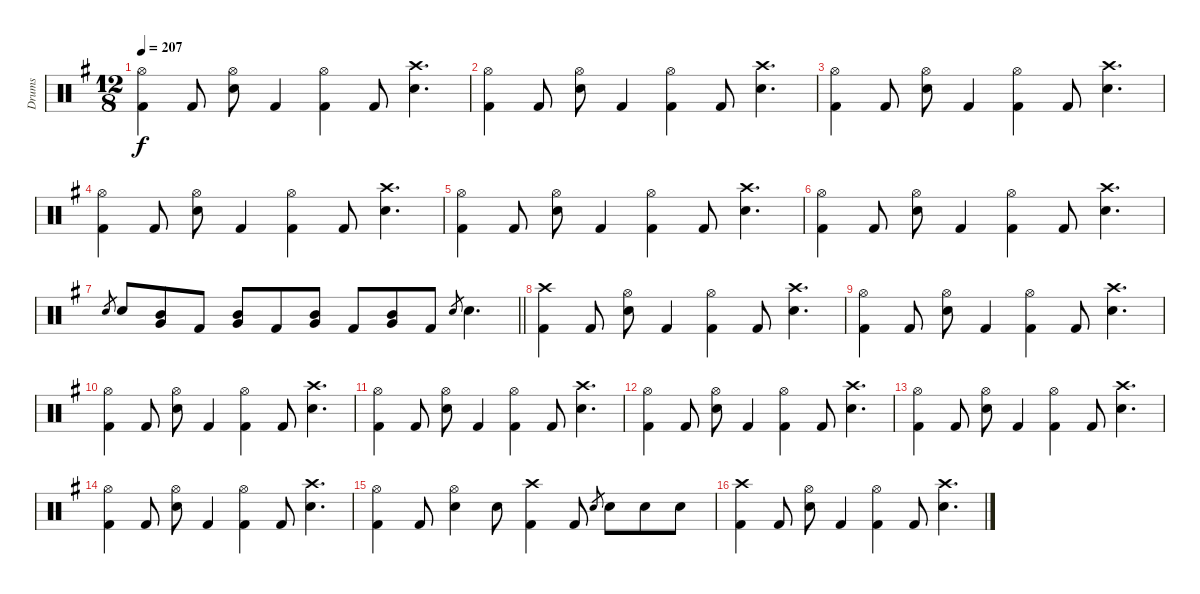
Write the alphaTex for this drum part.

\track ("Drums" "Drums") {instrument percussion}
\staff {score}
\articulation defaults
\ts (12 8)
\tempo 207
\clef neutral
\ks g
("Hi-Hat (open)" "Kick (hit) 2").4{dy f} "Kick (hit) 2".8 ("Hi-Hat (open)" "Electric Snare (hit)").8 "Kick (hit) 2".4 ("Hi-Hat (open)" "Kick (hit) 2").4 "Kick (hit) 2".8 ("Crash high (hit)" "Electric Snare (hit)").4{d} |
("Hi-Hat (open)" "Kick (hit) 2").4 "Kick (hit) 2".8 ("Hi-Hat (open)" "Electric Snare (hit)").8 "Kick (hit) 2".4 ("Hi-Hat (open)" "Kick (hit) 2").4 "Kick (hit) 2".8 ("Crash high (hit)" "Electric Snare (hit)").4{d} |
("Hi-Hat (open)" "Kick (hit) 2").4 "Kick (hit) 2".8 ("Hi-Hat (open)" "Electric Snare (hit)").8 "Kick (hit) 2".4 ("Hi-Hat (open)" "Kick (hit) 2").4 "Kick (hit) 2".8 ("Crash high (hit)" "Electric Snare (hit)").4{d} |
("Hi-Hat (open)" "Kick (hit) 2").4 "Kick (hit) 2".8 ("Hi-Hat (open)" "Electric Snare (hit)").8 "Kick (hit) 2".4 ("Hi-Hat (open)" "Kick (hit) 2").4 "Kick (hit) 2".8 ("Crash high (hit)" "Electric Snare (hit)").4{d} |
("Hi-Hat (open)" "Kick (hit) 2").4 "Kick (hit) 2".8 ("Hi-Hat (open)" "Electric Snare (hit)").8 "Kick (hit) 2".4 ("Hi-Hat (open)" "Kick (hit) 2").4 "Kick (hit) 2".8 ("Crash high (hit)" "Electric Snare (hit)").4{d} |
("Hi-Hat (open)" "Kick (hit) 2").4 "Kick (hit) 2".8 ("Hi-Hat (open)" "Electric Snare (hit)").8 "Kick (hit) 2".4 ("Hi-Hat (open)" "Kick (hit) 2").4 "Kick (hit) 2".8 ("Crash high (hit)" "Electric Snare (hit)").4{d} |
\barLineRight lightlight "Electric Snare (hit)".8{gr} "Electric Snare (hit)".8
("Mid Tom (hit)" "Very Low Tom (hit)").8 "Kick (hit) 2".8 ("Mid Tom (hit)" "Very Low Tom (hit)").8 "Kick (hit) 2".8 ("Mid Tom (hit)" "Very Low Tom (hit)").8 "Kick (hit) 2".8 ("Mid Tom (hit)" "Very Low Tom (hit)").8 "Kick (hit) 2".8 "Electric Snare (hit)".8{gr} "Electric Snare (hit)".4{d} |
\section ("" "")
("Crash high (hit)" "Kick (hit) 2").4 "Kick (hit) 2".8 ("Hi-Hat (open)" "Electric Snare (hit)").8 "Kick (hit) 2".4 ("Hi-Hat (open)" "Kick (hit) 2").4 "Kick (hit) 2".8 ("Crash high (hit)" "Electric Snare (hit)").4{d} |
("Hi-Hat (open)" "Kick (hit) 2").4 "Kick (hit) 2".8 ("Hi-Hat (open)" "Electric Snare (hit)").8 "Kick (hit) 2".4 ("Hi-Hat (open)" "Kick (hit) 2").4 "Kick (hit) 2".8 ("Crash high (hit)" "Electric Snare (hit)").4{d} |
("Hi-Hat (open)" "Kick (hit) 2").4 "Kick (hit) 2".8 ("Hi-Hat (open)" "Electric Snare (hit)").8 "Kick (hit) 2".4 ("Hi-Hat (open)" "Kick (hit) 2").4 "Kick (hit) 2".8 ("Crash high (hit)" "Electric Snare (hit)").4{d} |
("Hi-Hat (open)" "Kick (hit) 2").4 "Kick (hit) 2".8 ("Hi-Hat (open)" "Electric Snare (hit)").8 "Kick (hit) 2".4 ("Hi-Hat (open)" "Kick (hit) 2").4 "Kick (hit) 2".8 ("Crash high (hit)" "Electric Snare (hit)").4{d} |
("Hi-Hat (open)" "Kick (hit) 2").4 "Kick (hit) 2".8 ("Hi-Hat (open)" "Electric Snare (hit)").8 "Kick (hit) 2".4 ("Hi-Hat (open)" "Kick (hit) 2").4 "Kick (hit) 2".8 ("Crash high (hit)" "Electric Snare (hit)").4{d} |
("Hi-Hat (open)" "Kick (hit) 2").4 "Kick (hit) 2".8 ("Hi-Hat (open)" "Electric Snare (hit)").8 "Kick (hit) 2".4 ("Hi-Hat (open)" "Kick (hit) 2").4 "Kick (hit) 2".8 ("Crash high (hit)" "Electric Snare (hit)").4{d} |
("Hi-Hat (open)" "Kick (hit) 2").4 "Kick (hit) 2".8 ("Hi-Hat (open)" "Electric Snare (hit)").8 "Kick (hit) 2".4 ("Hi-Hat (open)" "Kick (hit) 2").4 "Kick (hit) 2".8 ("Crash high (hit)" "Electric Snare (hit)").4{d} |
("Hi-Hat (open)" "Kick (hit) 2").4 "Kick (hit) 2".8 ("Hi-Hat (open)" "Electric Snare (hit)").4 "Electric Snare (hit)".8 ("Crash high (hit)" "Kick (hit) 2").4 "Kick (hit) 2".8 "Electric Snare (hit)".8{gr} "Electric Snare (hit)".8 "Electric Snare (hit)".8 "Electric Snare (hit)".8 |
("Crash high (hit)" "Kick (hit) 2").4 "Kick (hit) 2".8 ("Hi-Hat (open)" "Electric Snare (hit)").8 "Kick (hit) 2".4 ("Hi-Hat (open)" "Kick (hit) 2").4 "Kick (hit) 2".8 ("Crash high (hit)" "Electric Snare (hit)").4{d}
